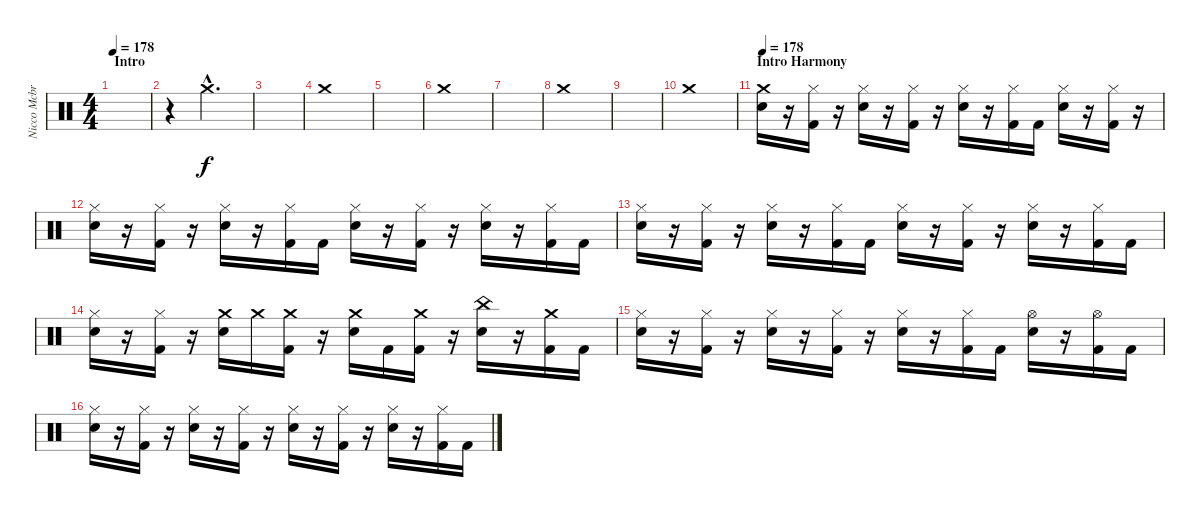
\track ("Nicco Mcbrian - Drums" "Nicco Mcbr") {instrument percussion}
\staff {score}
\articulation defaults
\ts (4 4)
\section ("" "Intro")
\tempo 178
\tempo 86
\tempo 178
\clef neutral
\ks c
|
r.4 "Crash medium (hit)"{hac}.2{d} |
|
"Crash medium (hit)".1 |
|
"Crash medium (hit)".1 |
|
"Crash medium (hit)".1 |
|
"Crash medium (hit)".1 |
\section ("" "Intro Harmony")
\tempo 178
("Crash medium (hit)" "Snare (hit) 2").16{volume 10} r.16 ("Hi-Hat (closed)" "Kick (hit) 2").16 r.16 ("Hi-Hat (closed)" "Snare (hit) 2").16 r.16 ("Hi-Hat (closed)" "Kick (hit) 2").16 r.16 ("Hi-Hat (closed)" "Snare (hit) 2").16 r.16 ("Hi-Hat (closed)" "Kick (hit) 2").16 "Kick (hit) 2".16 ("Hi-Hat (closed)" "Snare (hit) 2").16 r.16 ("Hi-Hat (closed)" "Kick (hit) 2").16 r.16 |
("Hi-Hat (closed)" "Snare (hit) 2").16 r.16 ("Hi-Hat (closed)" "Kick (hit) 2").16 r.16 ("Hi-Hat (closed)" "Snare (hit) 2").16 r.16 ("Hi-Hat (closed)" "Kick (hit) 2").16 "Kick (hit) 2".16 ("Hi-Hat (closed)" "Snare (hit) 2").16 r.16 ("Hi-Hat (closed)" "Kick (hit) 2").16 r.16 ("Hi-Hat (closed)" "Snare (hit) 2").16 r.16 ("Hi-Hat (closed)" "Kick (hit) 2").16 "Kick (hit) 2".16 |
("Hi-Hat (closed)" "Snare (hit) 2").16 r.16 ("Hi-Hat (closed)" "Kick (hit) 2").16 r.16 ("Hi-Hat (closed)" "Snare (hit) 2").16 r.16 ("Hi-Hat (closed)" "Kick (hit) 2").16 "Kick (hit) 2".16 ("Hi-Hat (closed)" "Snare (hit) 2").16 r.16 ("Hi-Hat (closed)" "Kick (hit) 2").16 r.16 ("Hi-Hat (closed)" "Snare (hit) 2").16 r.16 ("Hi-Hat (closed)" "Kick (hit) 2").16 "Kick (hit) 2".16 |
("Hi-Hat (closed)" "Snare (hit) 2").16 r.16 ("Hi-Hat (closed)" "Kick (hit) 2").16 r.16 ("Crash medium (hit)" "Snare (hit) 2").16 "Crash medium (hit)".16 ("Crash medium (hit)" "Kick (hit) 2").16 r.16 ("Crash medium (hit)" "Snare (hit) 2").16 "Kick (hit) 2".16 ("Crash medium (hit)" "Kick (hit) 2").16 r.16 ("China (hit)" "Snare (hit) 2").16 r.16 ("Crash medium (hit)" "Kick (hit) 2").16 "Kick (hit) 2".16 |
("Hi-Hat (closed)" "Snare (hit) 2").16 r.16 ("Hi-Hat (closed)" "Kick (hit) 2").16 r.16 ("Hi-Hat (closed)" "Snare (hit) 2").16 r.16 ("Hi-Hat (closed)" "Kick (hit) 2").16 r.16 ("Hi-Hat (closed)" "Snare (hit) 2").16 r.16 ("Hi-Hat (closed)" "Kick (hit) 2").16 "Kick (hit) 2".16 ("Hi-Hat (open)" "Snare (hit) 2").16 r.16 ("Hi-Hat (open)" "Kick (hit) 2").16 "Kick (hit) 2".16 |
("Hi-Hat (closed)" "Snare (hit) 2").16 r.16 ("Hi-Hat (closed)" "Kick (hit) 2").16 r.16 ("Hi-Hat (closed)" "Snare (hit) 2").16 r.16 ("Hi-Hat (closed)" "Kick (hit) 2").16 r.16 ("Hi-Hat (closed)" "Snare (hit) 2").16 r.16 ("Hi-Hat (closed)" "Kick (hit) 2").16 r.16 ("Hi-Hat (closed)" "Snare (hit) 2").16 r.16 ("Hi-Hat (closed)" "Kick (hit) 2").16 "Kick (hit) 2".16
